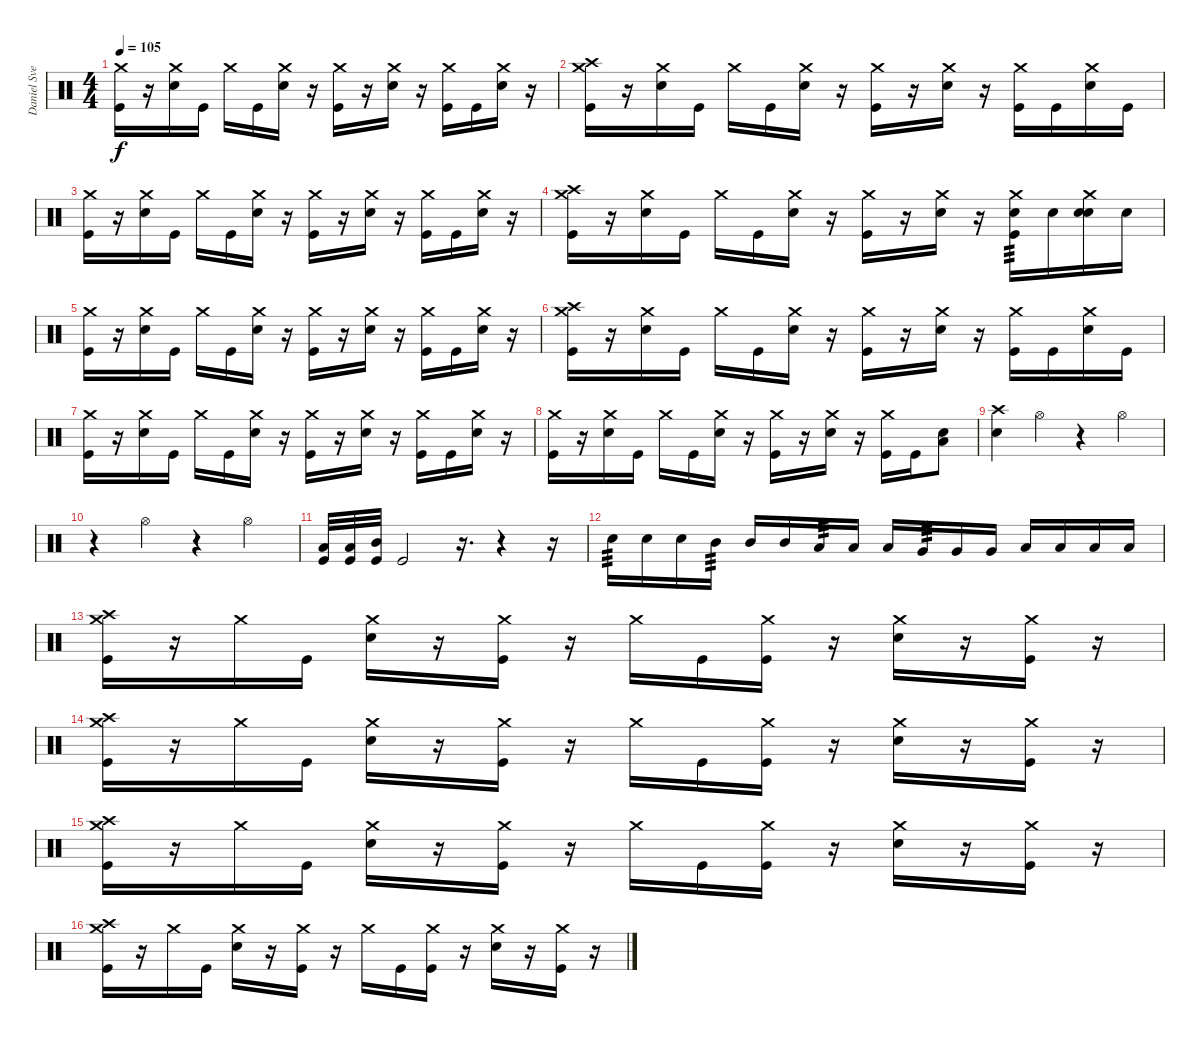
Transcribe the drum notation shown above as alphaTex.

\track ("Daniel Svensson" "Daniel Sve") {instrument percussion}
\staff {score}
\articulation defaults
\ts (4 4)
\tempo 105
\clef neutral
\ks c
("Crash medium (hit)" "Kick (hit)").16{dy f} r.16 ("Crash medium (hit)" "Snare (hit) 2").16 "Kick (hit)".16 "Crash medium (hit)".16 "Kick (hit)".16 ("Crash medium (hit)" "Snare (hit) 2").16 r.16 ("Crash medium (hit)" "Kick (hit)").16 r.16 ("Crash medium (hit)" "Snare (hit) 2").16 r.16 ("Crash medium (hit)" "Kick (hit)").16 "Kick (hit)".16 ("Crash medium (hit)" "Snare (hit) 2").16 r.16 |
("Crash medium (hit)" "Crash high (hit)" "Kick (hit)").16 r.16 ("Crash medium (hit)" "Snare (hit) 2").16 "Kick (hit)".16 "Crash medium (hit)".16 "Kick (hit)".16 ("Crash medium (hit)" "Snare (hit) 2").16 r.16 ("Crash medium (hit)" "Kick (hit)").16 r.16 ("Crash medium (hit)" "Snare (hit) 2").16 r.16 ("Crash medium (hit)" "Kick (hit)").16 "Kick (hit)".16 ("Crash medium (hit)" "Snare (hit) 2").16 "Kick (hit)".16 |
("Crash medium (hit)" "Kick (hit)").16 r.16 ("Crash medium (hit)" "Snare (hit) 2").16 "Kick (hit)".16 "Crash medium (hit)".16 "Kick (hit)".16 ("Crash medium (hit)" "Snare (hit) 2").16 r.16 ("Crash medium (hit)" "Kick (hit)").16 r.16 ("Crash medium (hit)" "Snare (hit) 2").16 r.16 ("Crash medium (hit)" "Kick (hit)").16 "Kick (hit)".16 ("Crash medium (hit)" "Snare (hit) 2").16 r.16 |
("Crash medium (hit)" "Crash high (hit)" "Kick (hit)").16 r.16 ("Crash medium (hit)" "Snare (hit) 2").16 "Kick (hit)".16 "Crash medium (hit)".16 "Kick (hit)".16 ("Crash medium (hit)" "Snare (hit) 2").16 r.16 ("Crash medium (hit)" "Kick (hit)").16 r.16 ("Crash medium (hit)" "Snare (hit) 2").16 r.16 ("Crash medium (hit)" "Kick (hit)" "Electric Snare (hit)").16{tp 3} "Electric Snare (hit)".16 ("Crash medium (hit)" "Snare (hit) 2" "Electric Snare (hit)").16 "Electric Snare (hit)".16 |
("Crash medium (hit)" "Kick (hit)").16 r.16 ("Crash medium (hit)" "Snare (hit) 2").16 "Kick (hit)".16 "Crash medium (hit)".16 "Kick (hit)".16 ("Crash medium (hit)" "Snare (hit) 2").16 r.16 ("Crash medium (hit)" "Kick (hit)").16 r.16 ("Crash medium (hit)" "Snare (hit) 2").16 r.16 ("Crash medium (hit)" "Kick (hit)").16 "Kick (hit)".16 ("Crash medium (hit)" "Snare (hit) 2").16 r.16 |
("Crash medium (hit)" "Crash high (hit)" "Kick (hit)").16 r.16 ("Crash medium (hit)" "Snare (hit) 2").16 "Kick (hit)".16 "Crash medium (hit)".16 "Kick (hit)".16 ("Crash medium (hit)" "Snare (hit) 2").16 r.16 ("Crash medium (hit)" "Kick (hit)").16 r.16 ("Crash medium (hit)" "Snare (hit) 2").16 r.16 ("Crash medium (hit)" "Kick (hit)").16 "Kick (hit)".16 ("Crash medium (hit)" "Snare (hit) 2").16 "Kick (hit)".16 |
("Crash medium (hit)" "Kick (hit)").16 r.16 ("Crash medium (hit)" "Snare (hit) 2").16 "Kick (hit)".16 "Crash medium (hit)".16 "Kick (hit)".16 ("Crash medium (hit)" "Snare (hit) 2").16 r.16 ("Crash medium (hit)" "Kick (hit)").16 r.16 ("Crash medium (hit)" "Snare (hit) 2").16 r.16 ("Crash medium (hit)" "Kick (hit)").16 "Kick (hit)".16 ("Crash medium (hit)" "Snare (hit) 2").16 r.16 |
("Crash medium (hit)" "Kick (hit)").16 r.16 ("Crash medium (hit)" "Snare (hit) 2").16 "Kick (hit)".16 "Crash medium (hit)".16 "Kick (hit)".16 ("Crash medium (hit)" "Snare (hit) 2").16 r.16 ("Crash medium (hit)" "Kick (hit)").16 r.16 ("Crash medium (hit)" "Snare (hit) 2").16 r.16 ("Crash medium (hit)" "Kick (hit)").16 "Kick (hit)".16 ("Low Tom (hit)" "Electric Snare (hit)").8 |
("Crash high (hit)" "Electric Snare (hit)").4 "Hi-Hat (open)".4 r.4 "Hi-Hat (open)".4 |
r.4 "Hi-Hat (open)".4 r.4 "Hi-Hat (open)".4 |
("Low Floor Tom (hit)" "Kick (hit)").32 ("Low Tom (hit)" "Kick (hit)").32 ("Mid Tom (hit)" "Kick (hit)").32 "Kick (hit)".2 r.16{d} r.4 r.16 |
"Electric Snare (hit)".16{tp 3} "Electric Snare (hit)".16 "Electric Snare (hit)".16 "Mid Tom (hit)".16{tp 3} "Mid Tom (hit)".16 "Mid Tom (hit)".16 "Low Tom (hit)".16{tp 3} "Low Tom (hit)".16 "Low Tom (hit)".16 "Very Low Tom (hit)".16{tp 3} "Very Low Tom (hit)".16 "Very Low Tom (hit)".16 "Low Floor Tom (hit)".16 "Low Floor Tom (hit)".16 "Low Floor Tom (hit)".16 "Low Floor Tom (hit)".16 |
("Crash medium (hit)" "Crash high (hit)" "Kick (hit)").16 r.16 "Crash medium (hit)".16 "Kick (hit)".16 ("Crash medium (hit)" "Electric Snare (hit)").16 r.16 ("Crash medium (hit)" "Kick (hit)").16 r.16 "Crash medium (hit)".16 "Kick (hit)".16 ("Crash medium (hit)" "Kick (hit)").16 r.16 ("Crash medium (hit)" "Electric Snare (hit)").16 r.16 ("Crash medium (hit)" "Kick (hit)").16 r.16 |
("Crash medium (hit)" "Crash high (hit)" "Kick (hit)").16 r.16 "Crash medium (hit)".16 "Kick (hit)".16 ("Crash medium (hit)" "Electric Snare (hit)").16 r.16 ("Crash medium (hit)" "Kick (hit)").16 r.16 "Crash medium (hit)".16 "Kick (hit)".16 ("Crash medium (hit)" "Kick (hit)").16 r.16 ("Crash medium (hit)" "Electric Snare (hit)").16 r.16 ("Crash medium (hit)" "Kick (hit)").16 r.16 |
("Crash medium (hit)" "Crash high (hit)" "Kick (hit)").16 r.16 "Crash medium (hit)".16 "Kick (hit)".16 ("Crash medium (hit)" "Electric Snare (hit)").16 r.16 ("Crash medium (hit)" "Kick (hit)").16 r.16 "Crash medium (hit)".16 "Kick (hit)".16 ("Crash medium (hit)" "Kick (hit)").16 r.16 ("Crash medium (hit)" "Electric Snare (hit)").16 r.16 ("Crash medium (hit)" "Kick (hit)").16 r.16 |
("Crash medium (hit)" "Crash high (hit)" "Kick (hit)").16 r.16 "Crash medium (hit)".16 "Kick (hit)".16 ("Crash medium (hit)" "Electric Snare (hit)").16 r.16 ("Crash medium (hit)" "Kick (hit)").16 r.16 "Crash medium (hit)".16 "Kick (hit)".16 ("Crash medium (hit)" "Kick (hit)").16 r.16 ("Crash medium (hit)" "Electric Snare (hit)").16 r.16 ("Crash medium (hit)" "Kick (hit)").16 r.16
